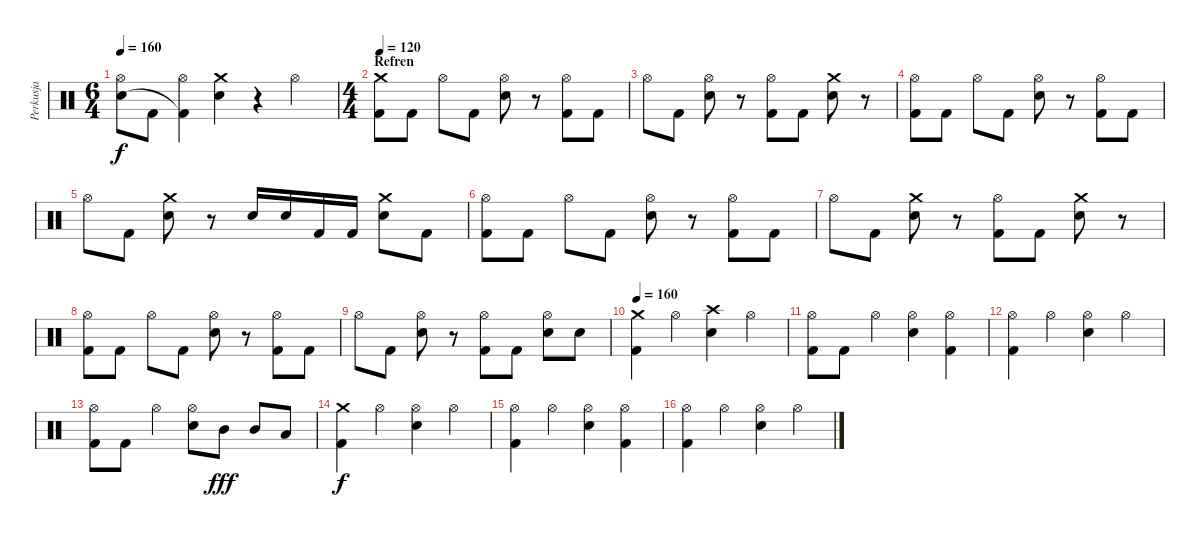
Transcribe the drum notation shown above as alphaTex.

\track ("Perkusja" "Perkusja") {instrument percussion}
\staff {score}
\articulation defaults
\ts (6 4)
\tempo 160
\clef neutral
\ks c
("Hi-Hat (open)" "Snare (hit)"{t}).8{dy f} "Kick (hit) 2".8 ("Hi-Hat (open)" "Kick (hit) 2"{t}).4 ("Crash medium (hit)" "Snare (hit) 2").4 r.4 "Hi-Hat (open)".2 |
\ts (4 4)
\section ("" "Refren")
\tempo 120
("Crash medium (hit)" "Kick (hit) 2").8 "Kick (hit) 2".8 "Hi-Hat (open)".8 "Kick (hit) 2".8 ("Hi-Hat (open)" "Snare (hit) 2").8 r.8 ("Hi-Hat (open)" "Kick (hit) 2").8 "Kick (hit) 2".8 |
"Hi-Hat (open)".8 "Kick (hit) 2".8 ("Hi-Hat (open)" "Snare (hit) 2").8 r.8 ("Hi-Hat (open)" "Kick (hit) 2").8 "Kick (hit) 2".8 ("Crash medium (hit)" "Snare (hit) 2").8 r.8 |
("Hi-Hat (open)" "Kick (hit) 2").8 "Kick (hit) 2".8 "Hi-Hat (open)".8 "Kick (hit) 2".8 ("Hi-Hat (open)" "Snare (hit) 2").8 r.8 ("Hi-Hat (open)" "Kick (hit) 2").8 "Kick (hit) 2".8 |
"Hi-Hat (open)".8 "Kick (hit) 2".8 ("Crash medium (hit)" "Snare (hit) 2").8 r.8 "Snare (hit) 2".16 "Snare (hit) 2".16 "Kick (hit) 2".16 "Kick (hit) 2".16 ("Crash medium (hit)" "Snare (hit) 2").8 "Kick (hit) 2".8 |
("Hi-Hat (open)" "Kick (hit) 2").8 "Kick (hit) 2".8 "Hi-Hat (open)".8 "Kick (hit) 2".8 ("Hi-Hat (open)" "Snare (hit) 2").8 r.8 ("Hi-Hat (open)" "Kick (hit) 2").8 "Kick (hit) 2".8 |
"Hi-Hat (open)".8 "Kick (hit) 2".8 ("Crash medium (hit)" "Snare (hit) 2").8 r.8 ("Hi-Hat (open)" "Kick (hit) 2").8 "Kick (hit) 2".8 ("Crash medium (hit)" "Snare (hit) 2").8 r.8 |
("Hi-Hat (open)" "Kick (hit) 2").8 "Kick (hit) 2".8 "Hi-Hat (open)".8 "Kick (hit) 2".8 ("Hi-Hat (open)" "Snare (hit) 2").8 r.8 ("Hi-Hat (open)" "Kick (hit) 2").8 "Kick (hit) 2".8 |
"Hi-Hat (open)".8 "Kick (hit) 2".8 ("Hi-Hat (open)" "Snare (hit) 2").8 r.8 ("Hi-Hat (open)" "Kick (hit) 2").8 "Kick (hit) 2".8 ("Hi-Hat (open)" "Snare (hit) 2").8 "Snare (hit) 2".8 |
\tempo 160
("Crash medium (hit)" "Kick (hit) 2").4 "Hi-Hat (open)".4 ("Crash high (hit)" "Snare (hit) 2").4 "Hi-Hat (open)".4 |
("Hi-Hat (open)" "Kick (hit) 2").8 "Kick (hit) 2".8 "Hi-Hat (open)".4 ("Hi-Hat (open)" "Snare (hit) 2").4 ("Hi-Hat (open)" "Kick (hit) 2").4 |
("Hi-Hat (open)" "Kick (hit) 2").4 "Hi-Hat (open)".4 ("Hi-Hat (open)" "Snare (hit) 2").4 "Hi-Hat (open)".4 |
("Hi-Hat (open)" "Kick (hit) 2").8 "Kick (hit) 2".8 "Hi-Hat (open)".4 ("Hi-Hat (open)" "Snare (hit) 2").8 "Mid Tom (hit)".8{dy fff} "Mid Tom (hit)".8 "Low Tom (hit)".8 |
("Crash medium (hit)" "Kick (hit) 2").4{dy f} "Hi-Hat (open)".4 ("Hi-Hat (open)" "Snare (hit) 2").4 "Hi-Hat (open)".4 |
("Hi-Hat (open)" "Kick (hit) 2").4 "Hi-Hat (open)".4 ("Hi-Hat (open)" "Snare (hit) 2").4 ("Hi-Hat (open)" "Kick (hit) 2").4 |
("Hi-Hat (open)" "Kick (hit) 2").4 "Hi-Hat (open)".4 ("Hi-Hat (open)" "Snare (hit) 2").4 "Hi-Hat (open)".4
